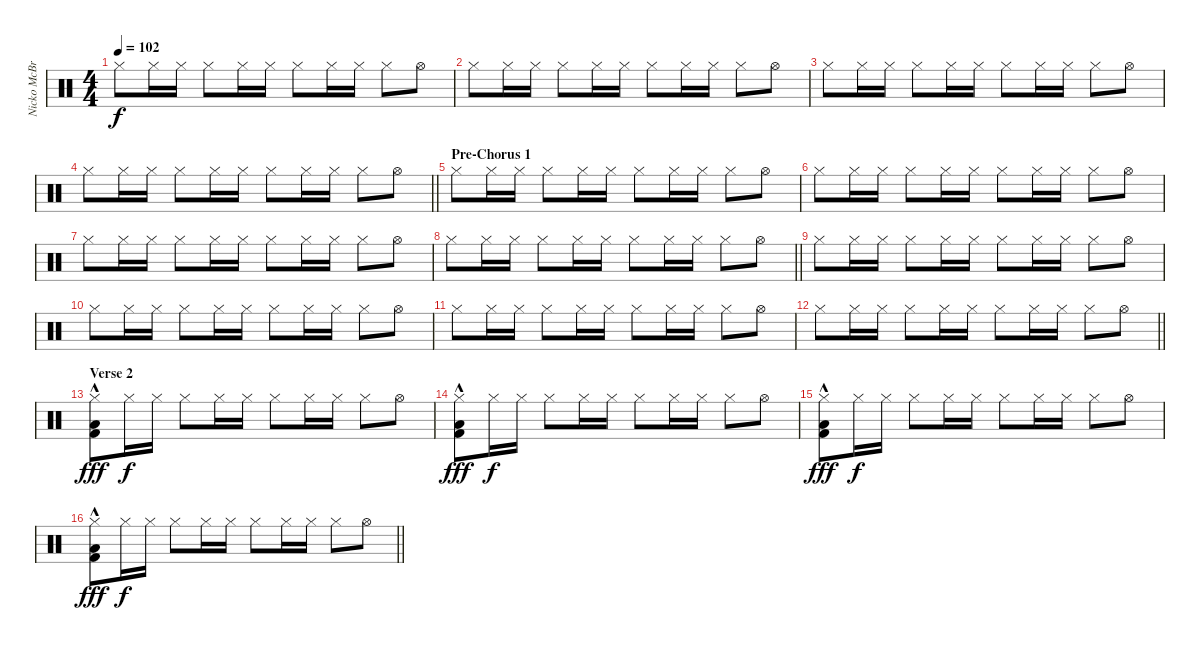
\track ("Nicko McBrain" "Nicko McBr") {instrument percussion}
\staff {score}
\articulation defaults
\ts (4 4)
\tempo 102
\clef neutral
\ks c "Hi-Hat (closed)".8{dy f} "Hi-Hat (closed)".16 "Hi-Hat (closed)".16 "Hi-Hat (closed)".8 "Hi-Hat (closed)".16 "Hi-Hat (closed)".16 "Hi-Hat (closed)".8 "Hi-Hat (closed)".16 "Hi-Hat (closed)".16 "Hi-Hat (closed)".8 "Hi-Hat (open)".8
|
"Hi-Hat (closed)".8 "Hi-Hat (closed)".16 "Hi-Hat (closed)".16 "Hi-Hat (closed)".8 "Hi-Hat (closed)".16 "Hi-Hat (closed)".16 "Hi-Hat (closed)".8 "Hi-Hat (closed)".16 "Hi-Hat (closed)".16 "Hi-Hat (closed)".8 "Hi-Hat (open)".8 |
"Hi-Hat (closed)".8 "Hi-Hat (closed)".16 "Hi-Hat (closed)".16 "Hi-Hat (closed)".8 "Hi-Hat (closed)".16 "Hi-Hat (closed)".16 "Hi-Hat (closed)".8 "Hi-Hat (closed)".16 "Hi-Hat (closed)".16 "Hi-Hat (closed)".8 "Hi-Hat (open)".8 |
\barLineRight lightlight "Hi-Hat (closed)".8 "Hi-Hat (closed)".16 "Hi-Hat (closed)".16 "Hi-Hat (closed)".8 "Hi-Hat (closed)".16 "Hi-Hat (closed)".16 "Hi-Hat (closed)".8 "Hi-Hat (closed)".16 "Hi-Hat (closed)".16 "Hi-Hat (closed)".8 "Hi-Hat (open)".8
|
\section ("" "Pre-Chorus 1")
"Hi-Hat (closed)".8 "Hi-Hat (closed)".16 "Hi-Hat (closed)".16 "Hi-Hat (closed)".8 "Hi-Hat (closed)".16 "Hi-Hat (closed)".16 "Hi-Hat (closed)".8 "Hi-Hat (closed)".16 "Hi-Hat (closed)".16 "Hi-Hat (closed)".8 "Hi-Hat (open)".8 |
"Hi-Hat (closed)".8 "Hi-Hat (closed)".16 "Hi-Hat (closed)".16 "Hi-Hat (closed)".8 "Hi-Hat (closed)".16 "Hi-Hat (closed)".16 "Hi-Hat (closed)".8 "Hi-Hat (closed)".16 "Hi-Hat (closed)".16 "Hi-Hat (closed)".8 "Hi-Hat (open)".8 |
"Hi-Hat (closed)".8 "Hi-Hat (closed)".16 "Hi-Hat (closed)".16 "Hi-Hat (closed)".8 "Hi-Hat (closed)".16 "Hi-Hat (closed)".16 "Hi-Hat (closed)".8 "Hi-Hat (closed)".16 "Hi-Hat (closed)".16 "Hi-Hat (closed)".8 "Hi-Hat (open)".8 |
\barLineRight lightlight "Hi-Hat (closed)".8 "Hi-Hat (closed)".16 "Hi-Hat (closed)".16 "Hi-Hat (closed)".8 "Hi-Hat (closed)".16 "Hi-Hat (closed)".16 "Hi-Hat (closed)".8 "Hi-Hat (closed)".16 "Hi-Hat (closed)".16 "Hi-Hat (closed)".8 "Hi-Hat (open)".8
|
"Hi-Hat (closed)".8 "Hi-Hat (closed)".16 "Hi-Hat (closed)".16 "Hi-Hat (closed)".8 "Hi-Hat (closed)".16 "Hi-Hat (closed)".16 "Hi-Hat (closed)".8 "Hi-Hat (closed)".16 "Hi-Hat (closed)".16 "Hi-Hat (closed)".8 "Hi-Hat (open)".8 |
"Hi-Hat (closed)".8 "Hi-Hat (closed)".16 "Hi-Hat (closed)".16 "Hi-Hat (closed)".8 "Hi-Hat (closed)".16 "Hi-Hat (closed)".16 "Hi-Hat (closed)".8 "Hi-Hat (closed)".16 "Hi-Hat (closed)".16 "Hi-Hat (closed)".8 "Hi-Hat (open)".8 |
"Hi-Hat (closed)".8 "Hi-Hat (closed)".16 "Hi-Hat (closed)".16 "Hi-Hat (closed)".8 "Hi-Hat (closed)".16 "Hi-Hat (closed)".16 "Hi-Hat (closed)".8 "Hi-Hat (closed)".16 "Hi-Hat (closed)".16 "Hi-Hat (closed)".8 "Hi-Hat (open)".8 |
\barLineRight lightlight "Hi-Hat (closed)".8 "Hi-Hat (closed)".16 "Hi-Hat (closed)".16 "Hi-Hat (closed)".8 "Hi-Hat (closed)".16 "Hi-Hat (closed)".16 "Hi-Hat (closed)".8 "Hi-Hat (closed)".16 "Hi-Hat (closed)".16 "Hi-Hat (closed)".8 "Hi-Hat (open)".8
|
\section ("" "Verse 2")
("Hi-Hat (closed)" "Low Floor Tom (hit)"{hac} "Kick (hit) 2"{hac}).8{dy fff} "Hi-Hat (closed)".16{dy f} "Hi-Hat (closed)".16 "Hi-Hat (closed)".8 "Hi-Hat (closed)".16 "Hi-Hat (closed)".16 "Hi-Hat (closed)".8 "Hi-Hat (closed)".16 "Hi-Hat (closed)".16 "Hi-Hat (closed)".8 "Hi-Hat (open)".8 |
("Hi-Hat (closed)" "Low Floor Tom (hit)"{hac} "Kick (hit) 2"{hac}).8{dy fff} "Hi-Hat (closed)".16{dy f} "Hi-Hat (closed)".16 "Hi-Hat (closed)".8 "Hi-Hat (closed)".16 "Hi-Hat (closed)".16 "Hi-Hat (closed)".8 "Hi-Hat (closed)".16 "Hi-Hat (closed)".16 "Hi-Hat (closed)".8 "Hi-Hat (open)".8 |
("Hi-Hat (closed)" "Low Floor Tom (hit)"{hac} "Kick (hit) 2"{hac}).8{dy fff} "Hi-Hat (closed)".16{dy f} "Hi-Hat (closed)".16 "Hi-Hat (closed)".8 "Hi-Hat (closed)".16 "Hi-Hat (closed)".16 "Hi-Hat (closed)".8 "Hi-Hat (closed)".16 "Hi-Hat (closed)".16 "Hi-Hat (closed)".8 "Hi-Hat (open)".8 |
\barLineRight lightlight
("Hi-Hat (closed)" "Low Floor Tom (hit)"{hac} "Kick (hit) 2"{hac}).8{dy fff} "Hi-Hat (closed)".16{dy f} "Hi-Hat (closed)".16 "Hi-Hat (closed)".8 "Hi-Hat (closed)".16 "Hi-Hat (closed)".16 "Hi-Hat (closed)".8 "Hi-Hat (closed)".16 "Hi-Hat (closed)".16 "Hi-Hat (closed)".8 "Hi-Hat (open)".8
